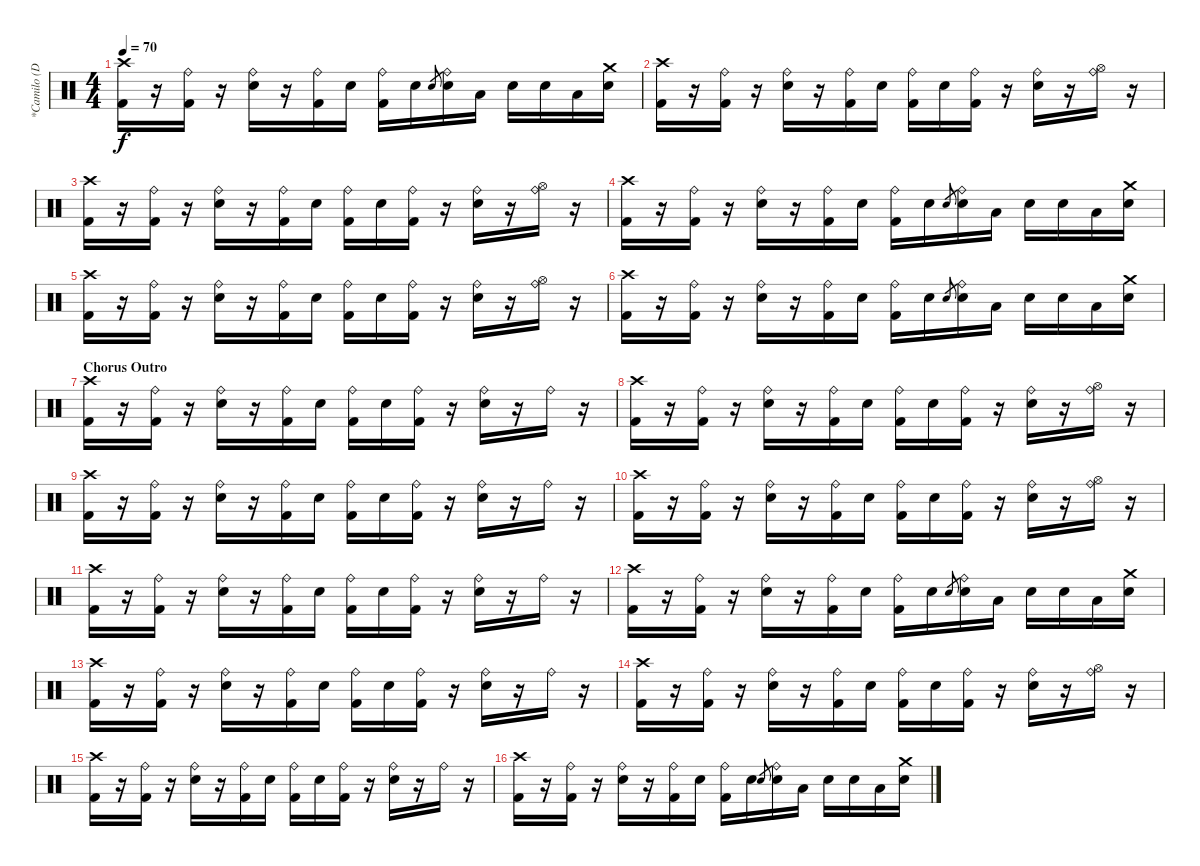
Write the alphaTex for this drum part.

\track ("*Camilo (Drums)" "*Camilo (D") {instrument percussion}
\staff {score}
\articulation defaults
\ts (4 4)
\tempo 70
\clef neutral
\ks c
("Crash high (hit)" "Kick (hit) 2").16{dy f} r.16 ("Ride (bell)" "Kick (hit) 2").16 r.16 ("Ride (bell)" "Electric Snare (hit)").16 r.16 ("Ride (bell)" "Kick (hit) 2").16 "Electric Snare (hit)".16 ("Ride (bell)" "Kick (hit) 2").16 "Electric Snare (hit)".16 "Electric Snare (hit)".8{gr} ("Ride (bell)" "Electric Snare (hit)").16 "Low Tom (hit)".16 "Electric Snare (hit)".16 "Electric Snare (hit)".16 "Low Tom (hit)".16 ("Crash medium (hit)" "Electric Snare (hit)").16 |
("Crash high (hit)" "Kick (hit) 2").16 r.16 ("Ride (bell)" "Kick (hit) 2").16 r.16 ("Ride (bell)" "Electric Snare (hit)").16 r.16 ("Ride (bell)" "Kick (hit) 2").16 "Electric Snare (hit)".16 ("Ride (bell)" "Kick (hit) 2").16 "Electric Snare (hit)".16 ("Ride (bell)" "Kick (hit) 2").16 r.16 ("Ride (bell)" "Electric Snare (hit)").16 r.16 ("Ride (bell)" "Hi-Hat (open)").16 r.16 |
("Crash high (hit)" "Kick (hit) 2").16 r.16 ("Ride (bell)" "Kick (hit) 2").16 r.16 ("Ride (bell)" "Electric Snare (hit)").16 r.16 ("Ride (bell)" "Kick (hit) 2").16 "Electric Snare (hit)".16 ("Ride (bell)" "Kick (hit) 2").16 "Electric Snare (hit)".16 ("Ride (bell)" "Kick (hit) 2").16 r.16 ("Ride (bell)" "Electric Snare (hit)").16 r.16 ("Ride (bell)" "Hi-Hat (open)").16 r.16 |
("Crash high (hit)" "Kick (hit) 2").16 r.16 ("Ride (bell)" "Kick (hit) 2").16 r.16 ("Ride (bell)" "Electric Snare (hit)").16 r.16 ("Ride (bell)" "Kick (hit) 2").16 "Electric Snare (hit)".16 ("Ride (bell)" "Kick (hit) 2").16 "Electric Snare (hit)".16 "Electric Snare (hit)".8{gr} ("Ride (bell)" "Electric Snare (hit)").16 "Low Tom (hit)".16 "Electric Snare (hit)".16 "Electric Snare (hit)".16 "Low Tom (hit)".16 ("Crash medium (hit)" "Electric Snare (hit)").16 |
("Crash high (hit)" "Kick (hit) 2").16 r.16 ("Ride (bell)" "Kick (hit) 2").16 r.16 ("Ride (bell)" "Electric Snare (hit)").16 r.16 ("Ride (bell)" "Kick (hit) 2").16 "Electric Snare (hit)".16 ("Ride (bell)" "Kick (hit) 2").16 "Electric Snare (hit)".16 ("Ride (bell)" "Kick (hit) 2").16 r.16 ("Ride (bell)" "Electric Snare (hit)").16 r.16 ("Ride (bell)" "Hi-Hat (open)").16 r.16 |
("Crash high (hit)" "Kick (hit) 2").16 r.16 ("Ride (bell)" "Kick (hit) 2").16 r.16 ("Ride (bell)" "Electric Snare (hit)").16 r.16 ("Ride (bell)" "Kick (hit) 2").16 "Electric Snare (hit)".16 ("Ride (bell)" "Kick (hit) 2").16 "Electric Snare (hit)".16 "Electric Snare (hit)".8{gr} ("Ride (bell)" "Electric Snare (hit)").16 "Low Tom (hit)".16 "Electric Snare (hit)".16 "Electric Snare (hit)".16 "Low Tom (hit)".16 ("Crash medium (hit)" "Electric Snare (hit)").16 |
\section ("" "Chorus Outro")
("Crash high (hit)" "Kick (hit) 2").16 r.16 ("Ride (bell)" "Kick (hit) 2").16 r.16 ("Ride (bell)" "Electric Snare (hit)").16 r.16 ("Ride (bell)" "Kick (hit) 2").16 "Electric Snare (hit)".16 ("Ride (bell)" "Kick (hit) 2").16 "Electric Snare (hit)".16 ("Ride (bell)" "Kick (hit) 2").16 r.16 ("Ride (bell)" "Electric Snare (hit)").16 r.16 "Ride (bell)".16 r.16 |
("Crash high (hit)" "Kick (hit) 2").16 r.16 ("Ride (bell)" "Kick (hit) 2").16 r.16 ("Ride (bell)" "Electric Snare (hit)").16 r.16 ("Ride (bell)" "Kick (hit) 2").16 "Electric Snare (hit)".16 ("Ride (bell)" "Kick (hit) 2").16 "Electric Snare (hit)".16 ("Ride (bell)" "Kick (hit) 2").16 r.16 ("Ride (bell)" "Electric Snare (hit)").16 r.16 ("Ride (bell)" "Hi-Hat (open)").16 r.16 |
("Crash high (hit)" "Kick (hit) 2").16 r.16 ("Ride (bell)" "Kick (hit) 2").16 r.16 ("Ride (bell)" "Electric Snare (hit)").16 r.16 ("Ride (bell)" "Kick (hit) 2").16 "Electric Snare (hit)".16 ("Ride (bell)" "Kick (hit) 2").16 "Electric Snare (hit)".16 ("Ride (bell)" "Kick (hit) 2").16 r.16 ("Ride (bell)" "Electric Snare (hit)").16 r.16 "Ride (bell)".16 r.16 |
("Crash high (hit)" "Kick (hit) 2").16 r.16 ("Ride (bell)" "Kick (hit) 2").16 r.16 ("Ride (bell)" "Electric Snare (hit)").16 r.16 ("Ride (bell)" "Kick (hit) 2").16 "Electric Snare (hit)".16 ("Ride (bell)" "Kick (hit) 2").16 "Electric Snare (hit)".16 ("Ride (bell)" "Kick (hit) 2").16 r.16 ("Ride (bell)" "Electric Snare (hit)").16 r.16 ("Ride (bell)" "Hi-Hat (open)").16 r.16 |
("Crash high (hit)" "Kick (hit) 2").16 r.16 ("Ride (bell)" "Kick (hit) 2").16 r.16 ("Ride (bell)" "Electric Snare (hit)").16 r.16 ("Ride (bell)" "Kick (hit) 2").16 "Electric Snare (hit)".16 ("Ride (bell)" "Kick (hit) 2").16 "Electric Snare (hit)".16 ("Ride (bell)" "Kick (hit) 2").16 r.16 ("Ride (bell)" "Electric Snare (hit)").16 r.16 "Ride (bell)".16 r.16 |
("Crash high (hit)" "Kick (hit) 2").16 r.16 ("Ride (bell)" "Kick (hit) 2").16 r.16 ("Ride (bell)" "Electric Snare (hit)").16 r.16 ("Ride (bell)" "Kick (hit) 2").16 "Electric Snare (hit)".16 ("Ride (bell)" "Kick (hit) 2").16 "Electric Snare (hit)".16 "Electric Snare (hit)".8{gr} ("Ride (bell)" "Electric Snare (hit)").16 "Low Tom (hit)".16 "Electric Snare (hit)".16 "Electric Snare (hit)".16 "Low Tom (hit)".16 ("Crash medium (hit)" "Electric Snare (hit)").16 |
("Crash high (hit)" "Kick (hit) 2").16 r.16 ("Ride (bell)" "Kick (hit) 2").16 r.16 ("Ride (bell)" "Electric Snare (hit)").16 r.16 ("Ride (bell)" "Kick (hit) 2").16 "Electric Snare (hit)".16 ("Ride (bell)" "Kick (hit) 2").16 "Electric Snare (hit)".16 ("Ride (bell)" "Kick (hit) 2").16 r.16 ("Ride (bell)" "Electric Snare (hit)").16 r.16 "Ride (bell)".16 r.16 |
("Crash high (hit)" "Kick (hit) 2").16 r.16 ("Ride (bell)" "Kick (hit) 2").16 r.16 ("Ride (bell)" "Electric Snare (hit)").16 r.16 ("Ride (bell)" "Kick (hit) 2").16 "Electric Snare (hit)".16 ("Ride (bell)" "Kick (hit) 2").16 "Electric Snare (hit)".16 ("Ride (bell)" "Kick (hit) 2").16 r.16 ("Ride (bell)" "Electric Snare (hit)").16 r.16 ("Ride (bell)" "Hi-Hat (open)").16 r.16 |
("Crash high (hit)" "Kick (hit) 2").16 r.16 ("Ride (bell)" "Kick (hit) 2").16 r.16 ("Ride (bell)" "Electric Snare (hit)").16 r.16 ("Ride (bell)" "Kick (hit) 2").16 "Electric Snare (hit)".16 ("Ride (bell)" "Kick (hit) 2").16 "Electric Snare (hit)".16 ("Ride (bell)" "Kick (hit) 2").16 r.16 ("Ride (bell)" "Electric Snare (hit)").16 r.16 "Ride (bell)".16 r.16 |
("Crash high (hit)" "Kick (hit) 2").16 r.16 ("Ride (bell)" "Kick (hit) 2").16 r.16 ("Ride (bell)" "Electric Snare (hit)").16 r.16 ("Ride (bell)" "Kick (hit) 2").16 "Electric Snare (hit)".16 ("Ride (bell)" "Kick (hit) 2").16 "Electric Snare (hit)".16 "Electric Snare (hit)".8{gr} ("Ride (bell)" "Electric Snare (hit)").16 "Low Tom (hit)".16 "Electric Snare (hit)".16 "Electric Snare (hit)".16 "Low Tom (hit)".16 ("Crash medium (hit)" "Electric Snare (hit)").16
